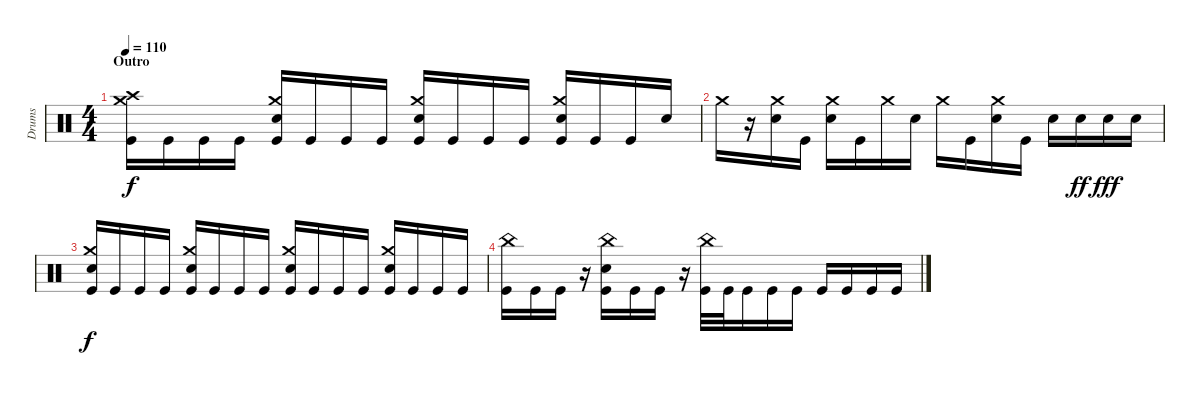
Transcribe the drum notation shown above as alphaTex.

\track ("Drums" "Drums") {instrument percussion}
\staff {score}
\articulation defaults
\ts (4 4)
\section ("" "Outro")
\tempo 110
\clef neutral
\ks c
("Kick (hit)" "Crash medium (hit)" "Crash high (hit)").16{dy f} "Kick (hit)".16 "Kick (hit)".16 "Kick (hit)".16 ("Kick (hit)" "Snare (hit) 2" "Crash medium (hit)").16 "Kick (hit)".16 "Kick (hit)".16 "Kick (hit)".16 ("Kick (hit)" "Snare (hit) 2" "Crash medium (hit)").16 "Kick (hit)".16 "Kick (hit)".16 "Kick (hit)".16 ("Kick (hit)" "Snare (hit) 2" "Crash medium (hit)").16 "Kick (hit)".16 "Kick (hit)".16 "Snare (hit) 2".16 |
"Crash medium (hit)".16 r.16 ("Crash medium (hit)" "Snare (hit) 2").16 "Kick (hit)".16 ("Snare (hit) 2" "Crash medium (hit)").16 "Kick (hit)".16 "Crash medium (hit)".16 "Snare (hit) 2".16 "Crash medium (hit)".16 "Kick (hit)".16 ("Snare (hit) 2" "Crash medium (hit)").16 "Kick (hit)".16 "Snare (hit) 2".16 "Snare (hit) 2".16{dy ff} "Snare (hit) 2".16{dy fff} "Snare (hit) 2".16 |
("Kick (hit)" "Crash medium (hit)" "Snare (hit) 2").16{dy f} "Kick (hit)".16 "Kick (hit)".16 "Kick (hit)".16 ("Kick (hit)" "Snare (hit) 2" "Crash medium (hit)").16 "Kick (hit)".16 "Kick (hit)".16 "Kick (hit)".16 ("Crash medium (hit)" "Kick (hit)" "Snare (hit) 2").16 "Kick (hit)".16 "Kick (hit)".16 "Kick (hit)".16 ("Kick (hit)" "Snare (hit) 2" "Crash medium (hit)").16 "Kick (hit)".16 "Kick (hit)".16 "Kick (hit)".16 |
("Kick (hit)" "China (hit)").16 "Kick (hit)".16 "Kick (hit)".16 r.16 ("Kick (hit)" "Snare (hit) 2" "China (hit)").16 "Kick (hit)".16 "Kick (hit)".16 r.16 ("China (hit)" "Kick (hit)").32 "Kick (hit)".32 "Kick (hit)".16 "Kick (hit)".16 "Kick (hit)".16 "Kick (hit)".16 "Kick (hit)".16 "Kick (hit)".16 "Kick (hit)".16
